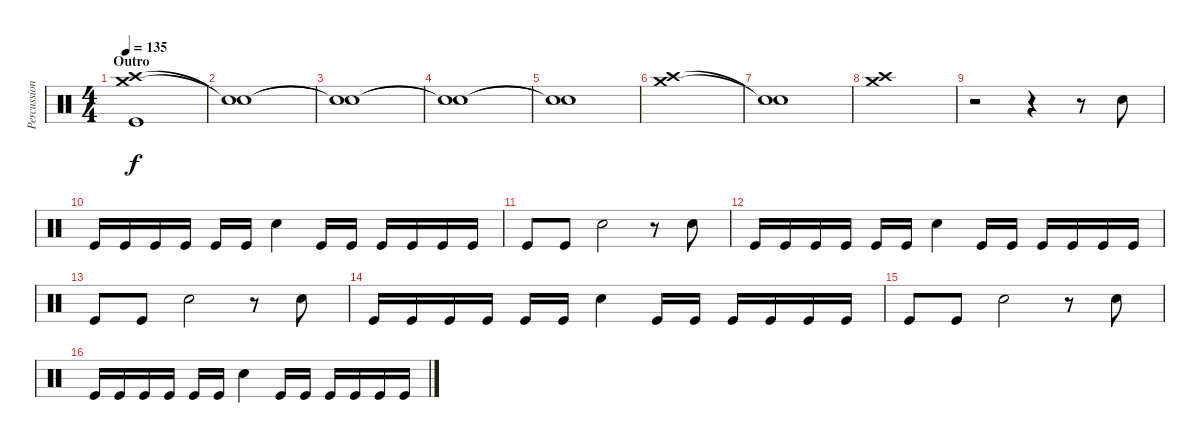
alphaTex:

\track ("Percussion" "Percussion") {instrument percussion}
\staff {score}
\articulation defaults
\ts (4 4)
\section ("" "Outro")
\tempo 135
\clef neutral
\ks c
("Crash high (hit)" "Crash medium (hit)" "Kick (hit)").1{dy f} |
("Snare (hit)"{t} "Snare (hit)"{t}).1 |
("Snare (hit)"{t} "Snare (hit)"{t}).1 |
("Snare (hit)"{t} "Snare (hit)"{t}).1 |
("Snare (hit)"{t} "Snare (hit)"{t}).1 |
("Crash high (hit)" "Crash medium (hit)").1 |
("Snare (hit)"{t} "Snare (hit)"{t}).1 |
("Crash high (hit)" "Crash medium (hit)").1 |
r.2 r.4 r.8 "Snare (hit) 2".8 |
"Kick (hit)".16 "Kick (hit)".16 "Kick (hit)".16 "Kick (hit)".16 "Kick (hit)".16 "Kick (hit)".16 "Snare (hit) 2".4 "Kick (hit)".16 "Kick (hit)".16 "Kick (hit)".16 "Kick (hit)".16 "Kick (hit)".16 "Kick (hit)".16 |
"Kick (hit)".8 "Kick (hit)".8 "Snare (hit) 2".2 r.8 "Snare (hit) 2".8 |
"Kick (hit)".16 "Kick (hit)".16 "Kick (hit)".16 "Kick (hit)".16 "Kick (hit)".16 "Kick (hit)".16 "Snare (hit) 2".4 "Kick (hit)".16 "Kick (hit)".16 "Kick (hit)".16 "Kick (hit)".16 "Kick (hit)".16 "Kick (hit)".16 |
"Kick (hit)".8 "Kick (hit)".8 "Snare (hit) 2".2 r.8 "Snare (hit) 2".8 |
"Kick (hit)".16 "Kick (hit)".16 "Kick (hit)".16 "Kick (hit)".16 "Kick (hit)".16 "Kick (hit)".16 "Snare (hit) 2".4 "Kick (hit)".16 "Kick (hit)".16 "Kick (hit)".16 "Kick (hit)".16 "Kick (hit)".16 "Kick (hit)".16 |
"Kick (hit)".8 "Kick (hit)".8 "Snare (hit) 2".2 r.8 "Snare (hit) 2".8 |
"Kick (hit)".16 "Kick (hit)".16 "Kick (hit)".16 "Kick (hit)".16 "Kick (hit)".16 "Kick (hit)".16 "Snare (hit) 2".4 "Kick (hit)".16 "Kick (hit)".16 "Kick (hit)".16 "Kick (hit)".16 "Kick (hit)".16 "Kick (hit)".16
